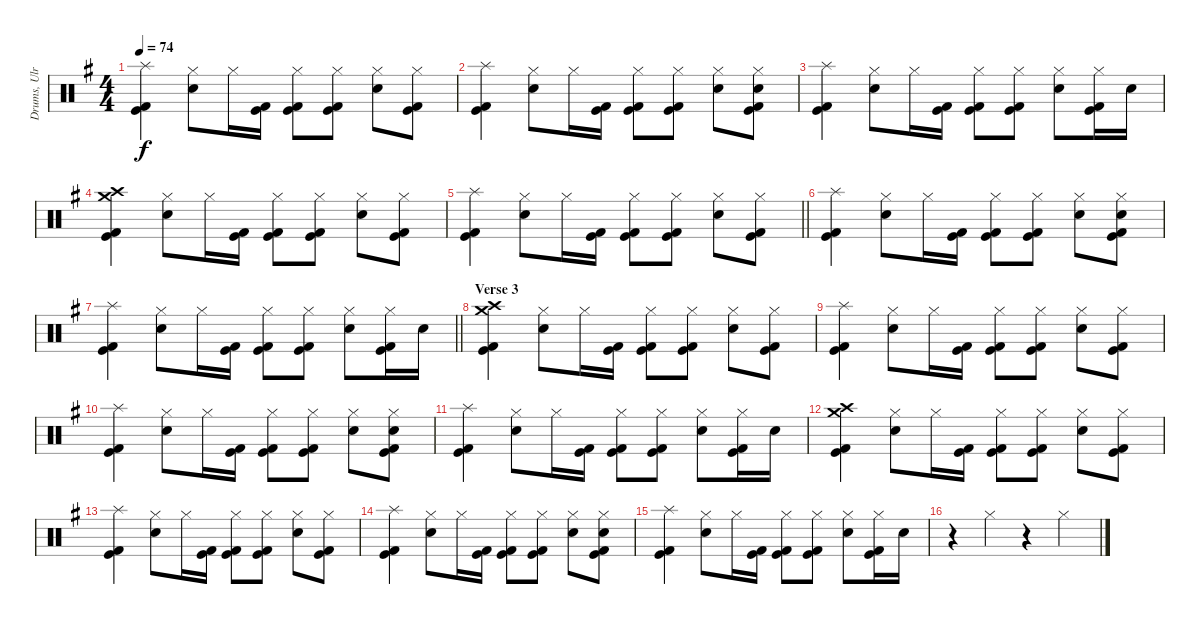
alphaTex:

\track ("Drums, Ulrich" "Drums, Ulr") {instrument percussion}
\staff {score}
\articulation defaults
\ts (4 4)
\tempo 74
\clef neutral
\ks g
("Splash (hit)" "Kick (hit) 2" "Kick (hit)").4{dy f} ("Hi-Hat (closed)" "Electric Snare (hit)").8 "Hi-Hat (closed)".16 ("Kick (hit) 2" "Kick (hit)").16 ("Hi-Hat (closed)" "Kick (hit) 2" "Kick (hit)").8 ("Hi-Hat (closed)" "Kick (hit)" "Kick (hit) 2").8 ("Hi-Hat (closed)" "Electric Snare (hit)").8 ("Hi-Hat (closed)" "Kick (hit) 2" "Kick (hit)").8 |
("Splash (hit)" "Kick (hit) 2" "Kick (hit)").4 ("Hi-Hat (closed)" "Electric Snare (hit)").8 "Hi-Hat (closed)".16 ("Kick (hit) 2" "Kick (hit)").16 ("Hi-Hat (closed)" "Kick (hit) 2" "Kick (hit)").8 ("Hi-Hat (closed)" "Kick (hit)" "Kick (hit) 2").8 ("Hi-Hat (closed)" "Electric Snare (hit)").8 ("Hi-Hat (closed)" "Electric Snare (hit)" "Kick (hit) 2" "Kick (hit)").8 |
("Splash (hit)" "Kick (hit) 2" "Kick (hit)").4 ("Hi-Hat (closed)" "Electric Snare (hit)").8 "Hi-Hat (closed)".16 ("Kick (hit) 2" "Kick (hit)").16 ("Hi-Hat (closed)" "Kick (hit) 2" "Kick (hit)").8 ("Hi-Hat (closed)" "Kick (hit)" "Kick (hit) 2").8 ("Hi-Hat (closed)" "Electric Snare (hit)").8 ("Hi-Hat (closed)" "Kick (hit) 2" "Kick (hit)").16 "Electric Snare (hit)".16 |
("Crash medium (hit)" "Crash high (hit)" "Kick (hit) 2" "Kick (hit)").4 ("Hi-Hat (closed)" "Electric Snare (hit)").8 "Hi-Hat (closed)".16 ("Kick (hit) 2" "Kick (hit)").16 ("Hi-Hat (closed)" "Kick (hit) 2" "Kick (hit)").8 ("Hi-Hat (closed)" "Kick (hit)" "Kick (hit) 2").8 ("Hi-Hat (closed)" "Electric Snare (hit)").8 ("Hi-Hat (closed)" "Kick (hit) 2" "Kick (hit)").8 |
\barLineRight lightlight
("Splash (hit)" "Kick (hit) 2" "Kick (hit)").4 ("Hi-Hat (closed)" "Electric Snare (hit)").8 "Hi-Hat (closed)".16 ("Kick (hit) 2" "Kick (hit)").16 ("Hi-Hat (closed)" "Kick (hit) 2" "Kick (hit)").8 ("Hi-Hat (closed)" "Kick (hit)" "Kick (hit) 2").8 ("Hi-Hat (closed)" "Electric Snare (hit)").8 ("Hi-Hat (closed)" "Kick (hit) 2" "Kick (hit)").8 |
("Splash (hit)" "Kick (hit) 2" "Kick (hit)").4 ("Hi-Hat (closed)" "Electric Snare (hit)").8 "Hi-Hat (closed)".16 ("Kick (hit) 2" "Kick (hit)").16 ("Hi-Hat (closed)" "Kick (hit) 2" "Kick (hit)").8 ("Hi-Hat (closed)" "Kick (hit)" "Kick (hit) 2").8 ("Hi-Hat (closed)" "Electric Snare (hit)").8 ("Hi-Hat (closed)" "Electric Snare (hit)" "Kick (hit) 2" "Kick (hit)").8 |
\barLineRight lightlight
("Splash (hit)" "Kick (hit) 2" "Kick (hit)").4 ("Hi-Hat (closed)" "Electric Snare (hit)").8 "Hi-Hat (closed)".16 ("Kick (hit) 2" "Kick (hit)").16 ("Hi-Hat (closed)" "Kick (hit) 2" "Kick (hit)").8 ("Hi-Hat (closed)" "Kick (hit)" "Kick (hit) 2").8 ("Hi-Hat (closed)" "Electric Snare (hit)").8 ("Hi-Hat (closed)" "Kick (hit) 2" "Kick (hit)").16 "Electric Snare (hit)".16 |
\section ("" "Verse 3")
("Crash medium (hit)" "Crash high (hit)" "Kick (hit) 2" "Kick (hit)").4 ("Hi-Hat (closed)" "Electric Snare (hit)").8 "Hi-Hat (closed)".16 ("Kick (hit) 2" "Kick (hit)").16 ("Hi-Hat (closed)" "Kick (hit) 2" "Kick (hit)").8 ("Hi-Hat (closed)" "Kick (hit)" "Kick (hit) 2").8 ("Hi-Hat (closed)" "Electric Snare (hit)").8 ("Hi-Hat (closed)" "Kick (hit) 2" "Kick (hit)").8 |
("Splash (hit)" "Kick (hit) 2" "Kick (hit)").4 ("Hi-Hat (closed)" "Electric Snare (hit)").8 "Hi-Hat (closed)".16 ("Kick (hit) 2" "Kick (hit)").16 ("Hi-Hat (closed)" "Kick (hit) 2" "Kick (hit)").8 ("Hi-Hat (closed)" "Kick (hit)" "Kick (hit) 2").8 ("Hi-Hat (closed)" "Electric Snare (hit)").8 ("Hi-Hat (closed)" "Kick (hit) 2" "Kick (hit)").8 |
("Splash (hit)" "Kick (hit) 2" "Kick (hit)").4 ("Hi-Hat (closed)" "Electric Snare (hit)").8 "Hi-Hat (closed)".16 ("Kick (hit) 2" "Kick (hit)").16 ("Hi-Hat (closed)" "Kick (hit) 2" "Kick (hit)").8 ("Hi-Hat (closed)" "Kick (hit)" "Kick (hit) 2").8 ("Hi-Hat (closed)" "Electric Snare (hit)").8 ("Hi-Hat (closed)" "Electric Snare (hit)" "Kick (hit) 2" "Kick (hit)").8 |
("Splash (hit)" "Kick (hit) 2" "Kick (hit)").4 ("Hi-Hat (closed)" "Electric Snare (hit)").8 "Hi-Hat (closed)".16 ("Kick (hit) 2" "Kick (hit)").16 ("Hi-Hat (closed)" "Kick (hit) 2" "Kick (hit)").8 ("Hi-Hat (closed)" "Kick (hit)" "Kick (hit) 2").8 ("Hi-Hat (closed)" "Electric Snare (hit)").8 ("Hi-Hat (closed)" "Kick (hit) 2" "Kick (hit)").16 "Electric Snare (hit)".16 |
("Crash medium (hit)" "Crash high (hit)" "Kick (hit) 2" "Kick (hit)").4 ("Hi-Hat (closed)" "Electric Snare (hit)").8 "Hi-Hat (closed)".16 ("Kick (hit) 2" "Kick (hit)").16 ("Hi-Hat (closed)" "Kick (hit) 2" "Kick (hit)").8 ("Hi-Hat (closed)" "Kick (hit)" "Kick (hit) 2").8 ("Hi-Hat (closed)" "Electric Snare (hit)").8 ("Hi-Hat (closed)" "Kick (hit) 2" "Kick (hit)").8 |
("Splash (hit)" "Kick (hit) 2" "Kick (hit)").4 ("Hi-Hat (closed)" "Electric Snare (hit)").8 "Hi-Hat (closed)".16 ("Kick (hit) 2" "Kick (hit)").16 ("Hi-Hat (closed)" "Kick (hit) 2" "Kick (hit)").8 ("Hi-Hat (closed)" "Kick (hit)" "Kick (hit) 2").8 ("Hi-Hat (closed)" "Electric Snare (hit)").8 ("Hi-Hat (closed)" "Kick (hit) 2" "Kick (hit)").8 |
("Splash (hit)" "Kick (hit) 2" "Kick (hit)").4 ("Hi-Hat (closed)" "Electric Snare (hit)").8 "Hi-Hat (closed)".16 ("Kick (hit) 2" "Kick (hit)").16 ("Hi-Hat (closed)" "Kick (hit) 2" "Kick (hit)").8 ("Hi-Hat (closed)" "Kick (hit)" "Kick (hit) 2").8 ("Hi-Hat (closed)" "Electric Snare (hit)").8 ("Hi-Hat (closed)" "Electric Snare (hit)" "Kick (hit) 2" "Kick (hit)").8 |
("Splash (hit)" "Kick (hit) 2" "Kick (hit)").4 ("Hi-Hat (closed)" "Electric Snare (hit)").8 "Hi-Hat (closed)".16 ("Kick (hit) 2" "Kick (hit)").16 ("Hi-Hat (closed)" "Kick (hit) 2" "Kick (hit)").8 ("Hi-Hat (closed)" "Kick (hit)" "Kick (hit) 2").8 ("Hi-Hat (closed)" "Electric Snare (hit)").8 ("Hi-Hat (closed)" "Kick (hit) 2" "Kick (hit)").16 "Electric Snare (hit)".16 |
r.4 "Hi-Hat (closed)".4 r.4 "Hi-Hat (closed)".4
